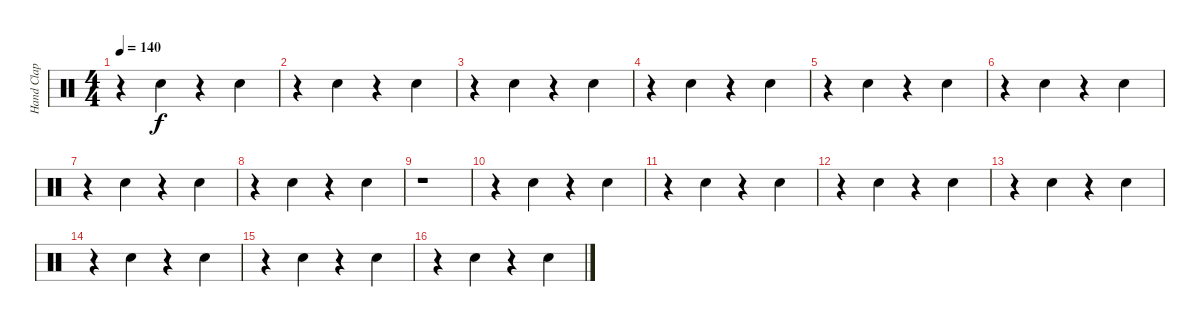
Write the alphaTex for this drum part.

\track ("Hand Clap" "Hand Clap") {instrument percussion}
\staff {score}
\articulation defaults
\ts (4 4)
\tempo 140
\clef neutral
\ks c
r.4{dy f} "Hand Clap (hit)".4 r.4 "Hand Clap (hit)".4 |
r.4 "Hand Clap (hit)".4 r.4 "Hand Clap (hit)".4 |
r.4 "Hand Clap (hit)".4 r.4 "Hand Clap (hit)".4 |
r.4 "Hand Clap (hit)".4 r.4 "Hand Clap (hit)".4 |
r.4 "Hand Clap (hit)".4 r.4 "Hand Clap (hit)".4 |
r.4 "Hand Clap (hit)".4 r.4 "Hand Clap (hit)".4 |
r.4 "Hand Clap (hit)".4 r.4 "Hand Clap (hit)".4 |
r.4 "Hand Clap (hit)".4 r.4 "Hand Clap (hit)".4 |
r.1 |
r.4 "Hand Clap (hit)".4 r.4 "Hand Clap (hit)".4 |
r.4 "Hand Clap (hit)".4 r.4 "Hand Clap (hit)".4 |
r.4 "Hand Clap (hit)".4 r.4 "Hand Clap (hit)".4 |
r.4 "Hand Clap (hit)".4 r.4 "Hand Clap (hit)".4 |
r.4 "Hand Clap (hit)".4 r.4 "Hand Clap (hit)".4 |
r.4 "Hand Clap (hit)".4 r.4 "Hand Clap (hit)".4 |
r.4 "Hand Clap (hit)".4 r.4 "Hand Clap (hit)".4
